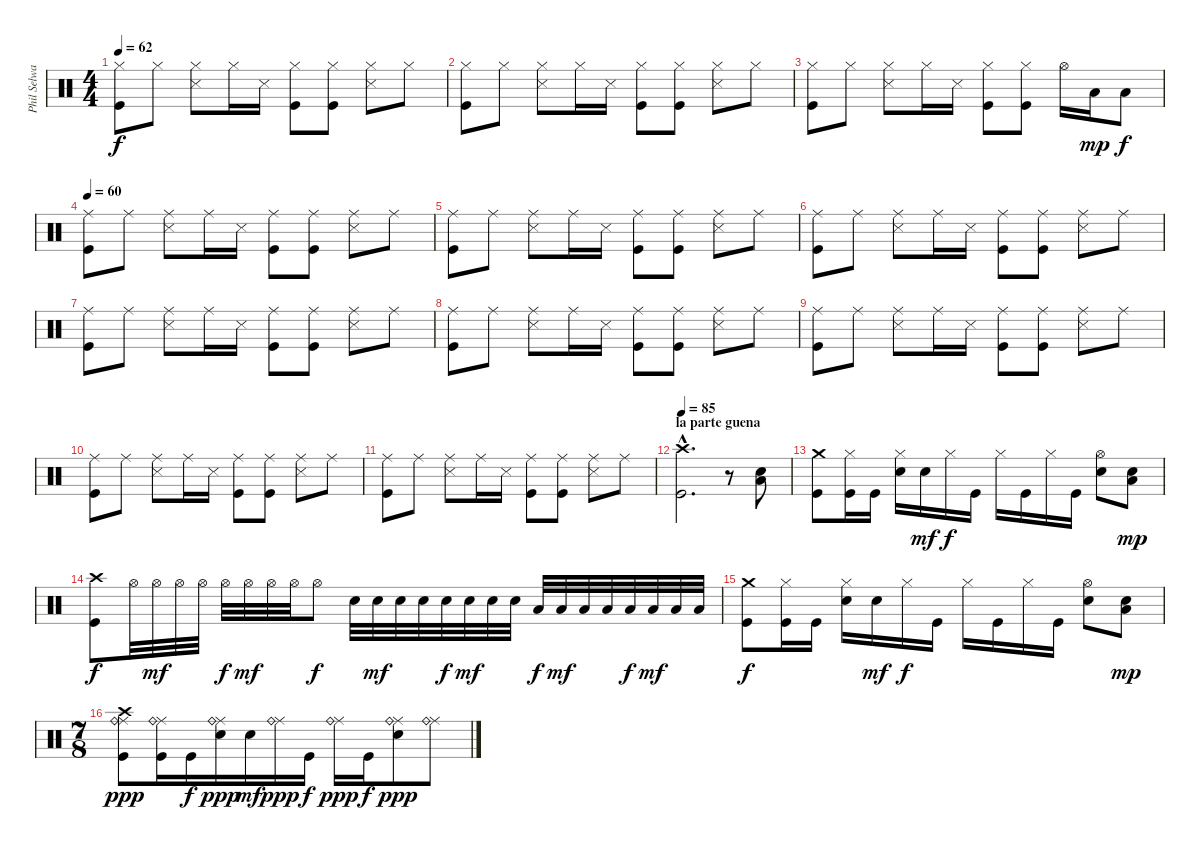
\track ("Phil Selway" "Phil Selwa") {instrument percussion}
\staff {score}
\articulation defaults
\ts (4 4)
\tempo 62
\clef neutral
\ks c
("Hi-Hat (closed)" "Kick (hit)").8{dy f} "Hi-Hat (closed)".8 ("Hi-Hat (closed)" "Snare (side stick) 3").8 "Hi-Hat (closed)".16 "Snare (side stick) 3".16 ("Hi-Hat (closed)" "Kick (hit)").8 ("Hi-Hat (closed)" "Kick (hit)").8 ("Hi-Hat (closed)" "Snare (side stick) 3").8 "Hi-Hat (closed)".8 |
("Hi-Hat (closed)" "Kick (hit)").8 "Hi-Hat (closed)".8 ("Hi-Hat (closed)" "Snare (side stick) 3").8 "Hi-Hat (closed)".16 "Snare (side stick) 3".16 ("Hi-Hat (closed)" "Kick (hit)").8 ("Hi-Hat (closed)" "Kick (hit)").8 ("Hi-Hat (closed)" "Snare (side stick) 3").8 "Hi-Hat (closed)".8 |
("Hi-Hat (closed)" "Kick (hit)").8 "Hi-Hat (closed)".8 ("Hi-Hat (closed)" "Snare (side stick) 3").8 "Hi-Hat (closed)".16 "Snare (side stick) 3".16 ("Hi-Hat (closed)" "Kick (hit)").8 ("Hi-Hat (closed)" "Kick (hit)").8 "Hi-Hat (open)".16 "Low Tom (hit)".16{dy mp} "Low Tom (hit)".8{dy f} |
\tempo 60
("Ride (middle)" "Kick (hit)").8 "Ride (middle)".8 ("Ride (middle)" "Snare (side stick) 3").8 "Ride (middle)".16 "Snare (side stick) 3".16 ("Ride (middle)" "Kick (hit)").8 ("Ride (middle)" "Kick (hit)").8 ("Ride (middle)" "Snare (side stick) 3").8 "Ride (middle)".8 |
("Ride (middle)" "Kick (hit)").8 "Ride (middle)".8 ("Ride (middle)" "Snare (side stick) 3").8 "Ride (middle)".16 "Snare (side stick) 3".16 ("Ride (middle)" "Kick (hit)").8 ("Ride (middle)" "Kick (hit)").8 ("Ride (middle)" "Snare (side stick) 3").8 "Ride (middle)".8 |
("Ride (middle)" "Kick (hit)").8 "Ride (middle)".8 ("Ride (middle)" "Snare (side stick) 3").8 "Ride (middle)".16 "Snare (side stick) 3".16 ("Ride (middle)" "Kick (hit)").8 ("Ride (middle)" "Kick (hit)").8 ("Ride (middle)" "Snare (side stick) 3").8 "Ride (middle)".8 |
("Ride (middle)" "Kick (hit)").8 "Ride (middle)".8 ("Ride (middle)" "Snare (side stick) 3").8 "Ride (middle)".16 "Snare (side stick) 3".16 ("Ride (middle)" "Kick (hit)").8 ("Ride (middle)" "Kick (hit)").8 ("Ride (middle)" "Snare (side stick) 3").8 "Ride (middle)".8 |
("Ride (middle)" "Kick (hit)").8 "Ride (middle)".8 ("Ride (middle)" "Snare (side stick) 3").8 "Ride (middle)".16 "Snare (side stick) 3".16 ("Ride (middle)" "Kick (hit)").8 ("Ride (middle)" "Kick (hit)").8 ("Ride (middle)" "Snare (side stick) 3").8 "Ride (middle)".8 |
("Ride (middle)" "Kick (hit)").8 "Ride (middle)".8 ("Ride (middle)" "Snare (side stick) 3").8 "Ride (middle)".16 "Snare (side stick) 3".16 ("Ride (middle)" "Kick (hit)").8 ("Ride (middle)" "Kick (hit)").8 ("Ride (middle)" "Snare (side stick) 3").8 "Ride (middle)".8 |
("Ride (middle)" "Kick (hit)").8 "Ride (middle)".8 ("Ride (middle)" "Snare (side stick) 3").8 "Ride (middle)".16 "Snare (side stick) 3".16 ("Ride (middle)" "Kick (hit)").8 ("Ride (middle)" "Kick (hit)").8 ("Ride (middle)" "Snare (side stick) 3").8 "Ride (middle)".8 |
("Ride (middle)" "Kick (hit)").8 "Ride (middle)".8 ("Ride (middle)" "Snare (side stick) 3").8 "Ride (middle)".16 "Snare (side stick) 3".16 ("Ride (middle)" "Kick (hit)").8 ("Ride (middle)" "Kick (hit)").8 ("Ride (middle)" "Snare (side stick) 3").8 "Ride (middle)".8 |
\section ("" "la parte guena")
\tempo 85
("Crash high (hit)"{hac} "Kick (hit)"{hac}).2{d} r.8 ("Snare (hit) 2" "Low Floor Tom (hit)").8 |
("Crash medium (hit)" "Kick (hit)").8 ("Hi-Hat (closed)" "Kick (hit)").16 "Kick (hit)".16 ("Hi-Hat (closed)" "Snare (hit) 2").16 "Snare (hit) 2".16{dy mf} "Hi-Hat (closed)".16{dy f} "Kick (hit)".16 "Hi-Hat (closed)".16 "Kick (hit)".16 "Hi-Hat (closed)".16 "Kick (hit)".16 ("Hi-Hat (open)" "Snare (hit) 2").8 ("Snare (hit) 2" "Low Floor Tom (hit)").8{dy mp} |
("Crash high (hit)" "Kick (hit)").8{dy f} "Hi-Hat (open)".32 "Hi-Hat (open)".32{dy mf} "Hi-Hat (open)".32 "Hi-Hat (open)".32 "Hi-Hat (open)".32{dy f} "Hi-Hat (open)".32{dy mf} "Hi-Hat (open)".32 "Hi-Hat (open)".32 "Hi-Hat (open)".8{dy f} "Snare (hit) 2".32 "Snare (hit) 2".32{dy mf} "Snare (hit) 2".32 "Snare (hit) 2".32 "Snare (hit) 2".32{dy f} "Snare (hit) 2".32{dy mf} "Snare (hit) 2".32 "Snare (hit) 2".32 "Low Tom (hit)".32{dy f} "Low Tom (hit)".32{dy mf} "Low Tom (hit)".32 "Low Tom (hit)".32 "Low Tom (hit)".32{dy f} "Low Tom (hit)".32{dy mf} "Low Tom (hit)".32 "Low Tom (hit)".32 |
("Crash medium (hit)" "Kick (hit)").8{dy f} ("Hi-Hat (closed)" "Kick (hit)").16 "Kick (hit)".16 ("Hi-Hat (closed)" "Snare (hit) 2").16 "Snare (hit) 2".16{dy mf} "Hi-Hat (closed)".16{dy f} "Kick (hit)".16 "Hi-Hat (closed)".16 "Kick (hit)".16 "Hi-Hat (closed)".16 "Kick (hit)".16 ("Hi-Hat (open)" "Snare (hit) 2").8 ("Snare (hit) 2" "Low Floor Tom (hit)").8{dy mp} |
\ts (7 8)
("Ride (middle)" "Ride (bell)" "Crash high (hit)" "Kick (hit)").8{dy ppp} ("Ride (middle)" "Ride (bell)" "Kick (hit)").16 "Kick (hit)".16{dy f} ("Ride (middle)" "Ride (bell)" "Snare (hit) 2").16{dy ppp} "Snare (hit) 2".16{dy mf} ("Ride (middle)" "Ride (bell)").16{dy ppp} "Kick (hit)".16{dy f} ("Ride (middle)" "Ride (bell)").16{dy ppp} "Kick (hit)".16{dy f} ("Ride (middle)" "Ride (bell)" "Snare (hit) 2").8{dy ppp} ("Ride (middle)" "Ride (bell)").8
